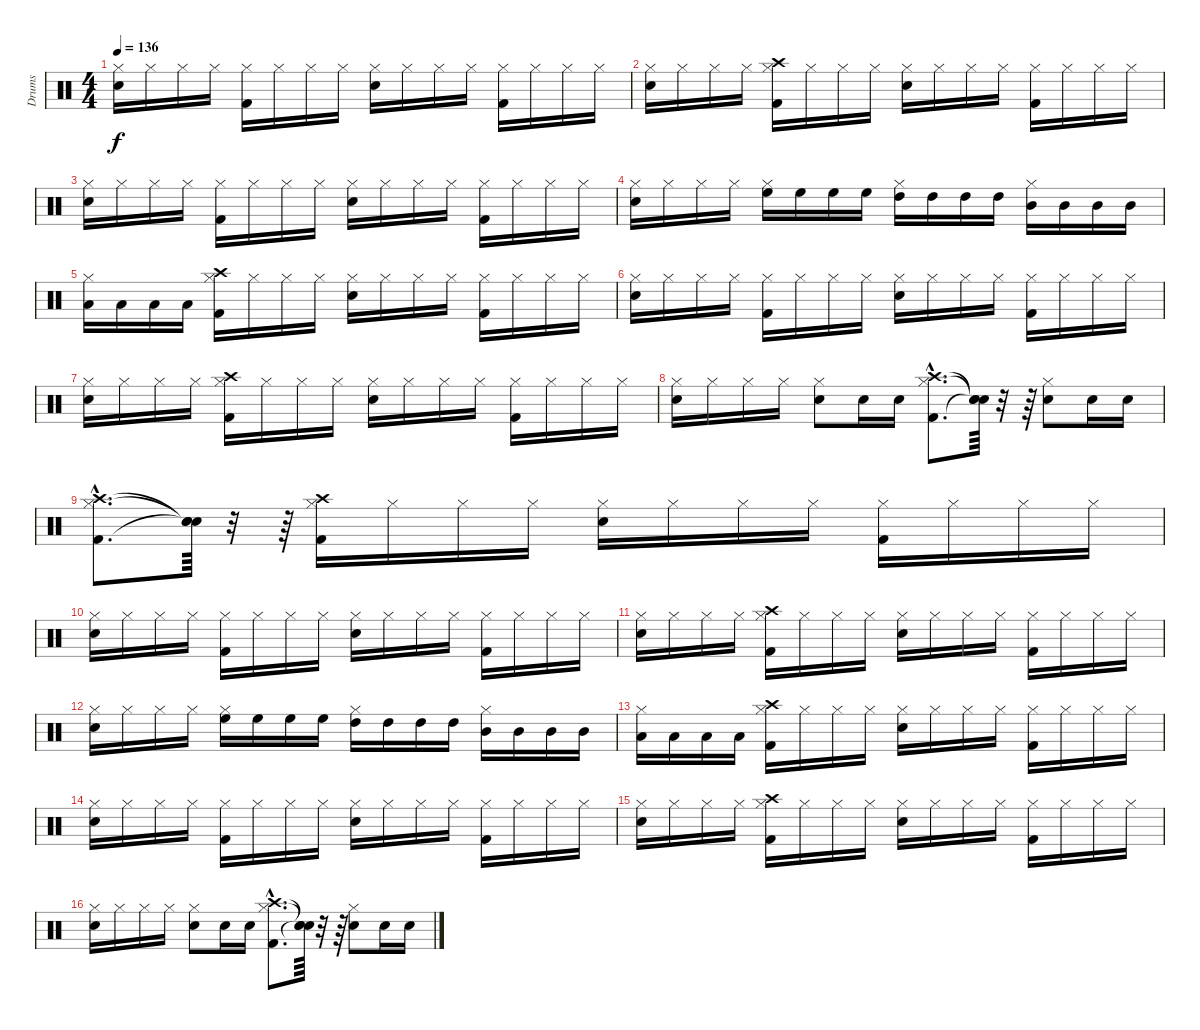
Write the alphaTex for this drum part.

\track ("Drums" "Drums") {instrument percussion}
\staff {score}
\articulation defaults
\ts (4 4)
\tempo 136
\clef neutral
\ks c
("Snare (hit) 2" "Hi-Hat (closed)").16{dy f} "Hi-Hat (closed)".16 "Hi-Hat (closed)".16 "Hi-Hat (closed)".16 ("Kick (hit) 2" "Hi-Hat (closed)").16 "Hi-Hat (closed)".16 "Hi-Hat (closed)".16 "Hi-Hat (closed)".16 ("Snare (hit) 2" "Hi-Hat (closed)").16 "Hi-Hat (closed)".16 "Hi-Hat (closed)".16 "Hi-Hat (closed)".16 ("Kick (hit) 2" "Hi-Hat (closed)").16 "Hi-Hat (closed)".16 "Hi-Hat (closed)".16 "Hi-Hat (closed)".16 |
("Snare (hit) 2" "Hi-Hat (closed)").16 "Hi-Hat (closed)".16 "Hi-Hat (closed)".16 "Hi-Hat (closed)".16 ("Kick (hit) 2" "Hi-Hat (closed)" "Crash high (hit)").16 "Hi-Hat (closed)".16 "Hi-Hat (closed)".16 "Hi-Hat (closed)".16 ("Snare (hit) 2" "Hi-Hat (closed)").16 "Hi-Hat (closed)".16 "Hi-Hat (closed)".16 "Hi-Hat (closed)".16 ("Kick (hit) 2" "Hi-Hat (closed)").16 "Hi-Hat (closed)".16 "Hi-Hat (closed)".16 "Hi-Hat (closed)".16 |
("Snare (hit) 2" "Hi-Hat (closed)").16 "Hi-Hat (closed)".16 "Hi-Hat (closed)".16 "Hi-Hat (closed)".16 ("Kick (hit) 2" "Hi-Hat (closed)").16 "Hi-Hat (closed)".16 "Hi-Hat (closed)".16 "Hi-Hat (closed)".16 ("Snare (hit) 2" "Hi-Hat (closed)").16 "Hi-Hat (closed)".16 "Hi-Hat (closed)".16 "Hi-Hat (closed)".16 ("Kick (hit) 2" "Hi-Hat (closed)").16 "Hi-Hat (closed)".16 "Hi-Hat (closed)".16 "Hi-Hat (closed)".16 |
("Snare (hit) 2" "Hi-Hat (closed)").16 "Hi-Hat (closed)".16 "Hi-Hat (closed)".16 "Hi-Hat (closed)".16 ("Hi-Hat (closed)" "High Floor Tom (hit)").16 "High Floor Tom (hit)".16 "High Floor Tom (hit)".16 "High Floor Tom (hit)".16 ("Hi-Hat (closed)" "High Tom (hit)").16 "High Tom (hit)".16 "High Tom (hit)".16 "High Tom (hit)".16 ("Hi-Hat (closed)" "Mid Tom (hit)").16 "Mid Tom (hit)".16 "Mid Tom (hit)".16 "Mid Tom (hit)".16 |
("Hi-Hat (closed)" "Low Tom (hit)").16 "Low Tom (hit)".16 "Low Tom (hit)".16 "Low Tom (hit)".16 ("Kick (hit) 2" "Hi-Hat (closed)" "Crash high (hit)").16 "Hi-Hat (closed)".16 "Hi-Hat (closed)".16 "Hi-Hat (closed)".16 ("Snare (hit) 2" "Hi-Hat (closed)").16 "Hi-Hat (closed)".16 "Hi-Hat (closed)".16 "Hi-Hat (closed)".16 ("Kick (hit) 2" "Hi-Hat (closed)").16 "Hi-Hat (closed)".16 "Hi-Hat (closed)".16 "Hi-Hat (closed)".16 |
("Snare (hit) 2" "Hi-Hat (closed)").16 "Hi-Hat (closed)".16 "Hi-Hat (closed)".16 "Hi-Hat (closed)".16 ("Kick (hit) 2" "Hi-Hat (closed)").16 "Hi-Hat (closed)".16 "Hi-Hat (closed)".16 "Hi-Hat (closed)".16 ("Snare (hit) 2" "Hi-Hat (closed)").16 "Hi-Hat (closed)".16 "Hi-Hat (closed)".16 "Hi-Hat (closed)".16 ("Kick (hit) 2" "Hi-Hat (closed)").16 "Hi-Hat (closed)".16 "Hi-Hat (closed)".16 "Hi-Hat (closed)".16 |
("Snare (hit) 2" "Hi-Hat (closed)").16 "Hi-Hat (closed)".16 "Hi-Hat (closed)".16 "Hi-Hat (closed)".16 ("Kick (hit) 2" "Hi-Hat (closed)" "Crash high (hit)").16 "Hi-Hat (closed)".16 "Hi-Hat (closed)".16 "Hi-Hat (closed)".16 ("Snare (hit) 2" "Hi-Hat (closed)").16 "Hi-Hat (closed)".16 "Hi-Hat (closed)".16 "Hi-Hat (closed)".16 ("Kick (hit) 2" "Hi-Hat (closed)").16 "Hi-Hat (closed)".16 "Hi-Hat (closed)".16 "Hi-Hat (closed)".16 |
("Snare (hit) 2" "Hi-Hat (closed)").16 "Hi-Hat (closed)".16 "Hi-Hat (closed)".16 "Hi-Hat (closed)".16 ("Snare (hit) 2" "Hi-Hat (closed)").8 "Snare (hit) 2".16 "Snare (hit) 2".16 ("Kick (hit) 2"{hac} "Hi-Hat (closed)"{hac} "Crash high (hit)"{hac}).8{d} ("Snare (hit)"{t} "Snare (hit)"{t} "Snare (hit)"{t}).64 r.32 r.64 ("Snare (hit) 2" "Hi-Hat (closed)").8 "Snare (hit) 2".16 "Snare (hit) 2".16 |
("Kick (hit) 2"{hac} "Hi-Hat (closed)"{hac} "Crash high (hit)"{hac}).8{d} ("Snare (hit)"{t} "Snare (hit)"{t} "Snare (hit)"{t}).64 r.32 r.64 ("Kick (hit) 2" "Hi-Hat (closed)" "Crash high (hit)").16 "Hi-Hat (closed)".16 "Hi-Hat (closed)".16 "Hi-Hat (closed)".16 ("Snare (hit) 2" "Hi-Hat (closed)").16 "Hi-Hat (closed)".16 "Hi-Hat (closed)".16 "Hi-Hat (closed)".16 ("Kick (hit) 2" "Hi-Hat (closed)").16 "Hi-Hat (closed)".16 "Hi-Hat (closed)".16 "Hi-Hat (closed)".16 |
("Snare (hit) 2" "Hi-Hat (closed)").16 "Hi-Hat (closed)".16 "Hi-Hat (closed)".16 "Hi-Hat (closed)".16 ("Kick (hit) 2" "Hi-Hat (closed)").16 "Hi-Hat (closed)".16 "Hi-Hat (closed)".16 "Hi-Hat (closed)".16 ("Snare (hit) 2" "Hi-Hat (closed)").16 "Hi-Hat (closed)".16 "Hi-Hat (closed)".16 "Hi-Hat (closed)".16 ("Kick (hit) 2" "Hi-Hat (closed)").16 "Hi-Hat (closed)".16 "Hi-Hat (closed)".16 "Hi-Hat (closed)".16 |
("Snare (hit) 2" "Hi-Hat (closed)").16 "Hi-Hat (closed)".16 "Hi-Hat (closed)".16 "Hi-Hat (closed)".16 ("Kick (hit) 2" "Hi-Hat (closed)" "Crash high (hit)").16 "Hi-Hat (closed)".16 "Hi-Hat (closed)".16 "Hi-Hat (closed)".16 ("Snare (hit) 2" "Hi-Hat (closed)").16 "Hi-Hat (closed)".16 "Hi-Hat (closed)".16 "Hi-Hat (closed)".16 ("Kick (hit) 2" "Hi-Hat (closed)").16 "Hi-Hat (closed)".16 "Hi-Hat (closed)".16 "Hi-Hat (closed)".16 |
("Snare (hit) 2" "Hi-Hat (closed)").16 "Hi-Hat (closed)".16 "Hi-Hat (closed)".16 "Hi-Hat (closed)".16 ("Hi-Hat (closed)" "High Floor Tom (hit)").16 "High Floor Tom (hit)".16 "High Floor Tom (hit)".16 "High Floor Tom (hit)".16 ("Hi-Hat (closed)" "High Tom (hit)").16 "High Tom (hit)".16 "High Tom (hit)".16 "High Tom (hit)".16 ("Hi-Hat (closed)" "Mid Tom (hit)").16 "Mid Tom (hit)".16 "Mid Tom (hit)".16 "Mid Tom (hit)".16 |
("Hi-Hat (closed)" "Low Tom (hit)").16 "Low Tom (hit)".16 "Low Tom (hit)".16 "Low Tom (hit)".16 ("Kick (hit) 2" "Hi-Hat (closed)" "Crash high (hit)").16 "Hi-Hat (closed)".16 "Hi-Hat (closed)".16 "Hi-Hat (closed)".16 ("Snare (hit) 2" "Hi-Hat (closed)").16 "Hi-Hat (closed)".16 "Hi-Hat (closed)".16 "Hi-Hat (closed)".16 ("Kick (hit) 2" "Hi-Hat (closed)").16 "Hi-Hat (closed)".16 "Hi-Hat (closed)".16 "Hi-Hat (closed)".16 |
("Snare (hit) 2" "Hi-Hat (closed)").16 "Hi-Hat (closed)".16 "Hi-Hat (closed)".16 "Hi-Hat (closed)".16 ("Kick (hit) 2" "Hi-Hat (closed)").16 "Hi-Hat (closed)".16 "Hi-Hat (closed)".16 "Hi-Hat (closed)".16 ("Snare (hit) 2" "Hi-Hat (closed)").16 "Hi-Hat (closed)".16 "Hi-Hat (closed)".16 "Hi-Hat (closed)".16 ("Kick (hit) 2" "Hi-Hat (closed)").16 "Hi-Hat (closed)".16 "Hi-Hat (closed)".16 "Hi-Hat (closed)".16 |
("Snare (hit) 2" "Hi-Hat (closed)").16 "Hi-Hat (closed)".16 "Hi-Hat (closed)".16 "Hi-Hat (closed)".16 ("Kick (hit) 2" "Hi-Hat (closed)" "Crash high (hit)").16 "Hi-Hat (closed)".16 "Hi-Hat (closed)".16 "Hi-Hat (closed)".16 ("Snare (hit) 2" "Hi-Hat (closed)").16 "Hi-Hat (closed)".16 "Hi-Hat (closed)".16 "Hi-Hat (closed)".16 ("Kick (hit) 2" "Hi-Hat (closed)").16 "Hi-Hat (closed)".16 "Hi-Hat (closed)".16 "Hi-Hat (closed)".16 |
("Snare (hit) 2" "Hi-Hat (closed)").16 "Hi-Hat (closed)".16 "Hi-Hat (closed)".16 "Hi-Hat (closed)".16 ("Snare (hit) 2" "Hi-Hat (closed)").8 "Snare (hit) 2".16 "Snare (hit) 2".16 ("Kick (hit) 2"{hac} "Hi-Hat (closed)"{hac} "Crash high (hit)"{hac}).8{d} ("Snare (hit)"{t} "Snare (hit)"{t} "Snare (hit)"{t}).64 r.32 r.64 ("Snare (hit) 2" "Hi-Hat (closed)").8 "Snare (hit) 2".16 "Snare (hit) 2".16
